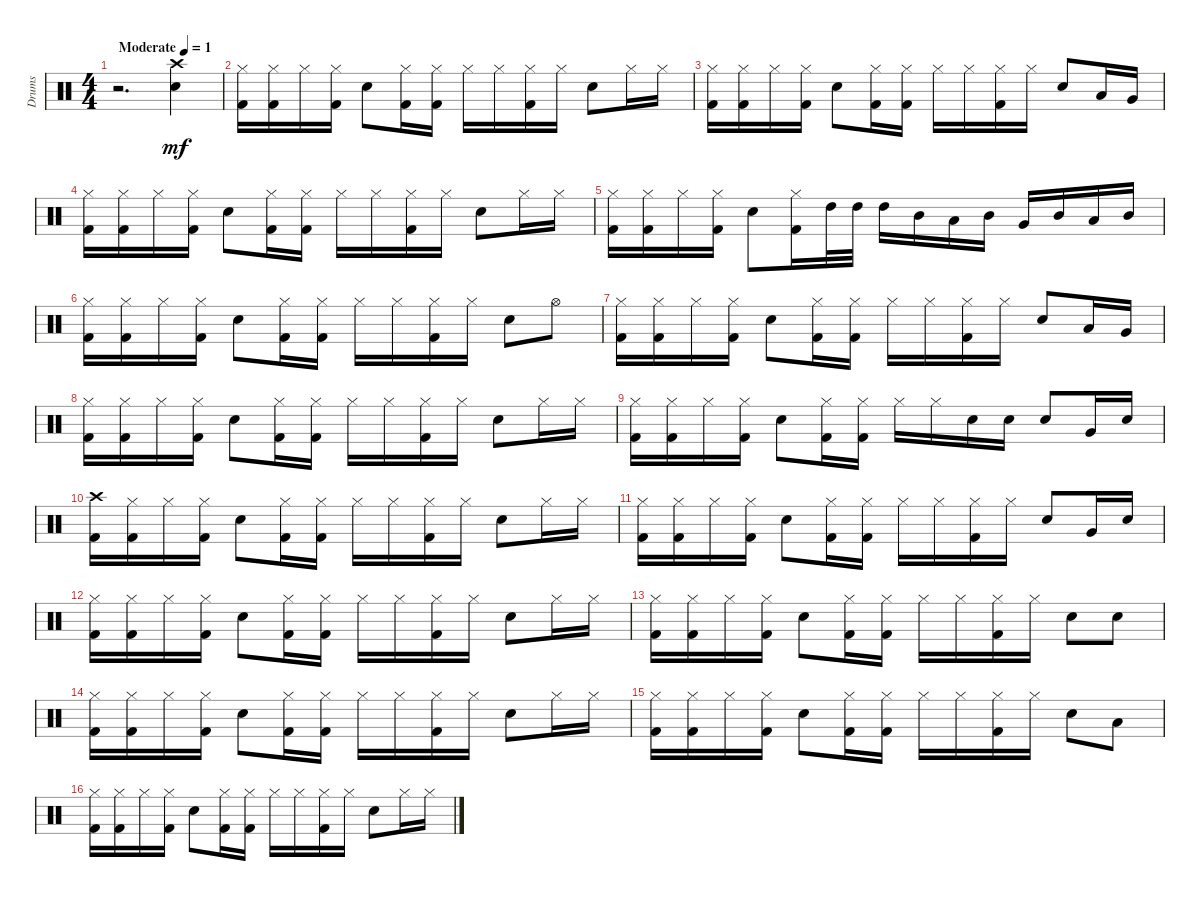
\track ("Drums" "Drums") {instrument percussion}
\staff {score}
\articulation defaults
\ts (4 4)
\tempo (1 "Moderate")
\clef neutral
\ks c
r.2{d dy mf} ("Snare (hit) 2" "Crash high (hit)").4 |
("Hi-Hat (closed)" "Kick (hit) 2").16 ("Hi-Hat (closed)" "Kick (hit) 2").16 "Hi-Hat (closed)".16 ("Hi-Hat (closed)" "Kick (hit) 2").16 "Snare (hit) 2".8 ("Hi-Hat (closed)" "Kick (hit) 2").16 ("Hi-Hat (closed)" "Kick (hit) 2").16 "Hi-Hat (closed)".16 "Hi-Hat (closed)".16 ("Hi-Hat (closed)" "Kick (hit) 2").16 "Hi-Hat (closed)".16 "Snare (hit) 2".8 "Hi-Hat (closed)".16 "Hi-Hat (closed)".16 |
("Hi-Hat (closed)" "Kick (hit) 2").16 ("Hi-Hat (closed)" "Kick (hit) 2").16 "Hi-Hat (closed)".16 ("Hi-Hat (closed)" "Kick (hit) 2").16 "Snare (hit) 2".8 ("Hi-Hat (closed)" "Kick (hit) 2").16 ("Hi-Hat (closed)" "Kick (hit) 2").16 "Hi-Hat (closed)".16 "Hi-Hat (closed)".16 ("Hi-Hat (closed)" "Kick (hit) 2").16 "Hi-Hat (closed)".16 "Snare (hit) 2".8 "Low Tom (hit)".16 "Very Low Tom (hit)".16 |
("Hi-Hat (closed)" "Kick (hit) 2").16 ("Hi-Hat (closed)" "Kick (hit) 2").16 "Hi-Hat (closed)".16 ("Hi-Hat (closed)" "Kick (hit) 2").16 "Snare (hit) 2".8 ("Hi-Hat (closed)" "Kick (hit) 2").16 ("Hi-Hat (closed)" "Kick (hit) 2").16 "Hi-Hat (closed)".16 "Hi-Hat (closed)".16 ("Hi-Hat (closed)" "Kick (hit) 2").16 "Hi-Hat (closed)".16 "Snare (hit) 2".8 "Hi-Hat (closed)".16 "Hi-Hat (closed)".16 |
("Hi-Hat (closed)" "Kick (hit) 2").16 ("Hi-Hat (closed)" "Kick (hit) 2").16 "Hi-Hat (closed)".16 ("Hi-Hat (closed)" "Kick (hit) 2").16 "Snare (hit) 2".8 ("Hi-Hat (closed)" "Kick (hit) 2").16 "High Tom (hit)".32 "High Tom (hit)".32 "High Tom (hit)".16 "Mid Tom (hit)".16 "Low Tom (hit)".16 "Mid Tom (hit)".16 "Very Low Tom (hit)".16 "Mid Tom (hit)".16 "Low Floor Tom (hit)".16 "Mid Tom (hit)".16 |
("Hi-Hat (closed)" "Kick (hit) 2").16 ("Hi-Hat (closed)" "Kick (hit) 2").16 "Hi-Hat (closed)".16 ("Hi-Hat (closed)" "Kick (hit) 2").16 "Snare (hit) 2".8 ("Hi-Hat (closed)" "Kick (hit) 2").16 ("Hi-Hat (closed)" "Kick (hit) 2").16 "Hi-Hat (closed)".16 "Hi-Hat (closed)".16 ("Hi-Hat (closed)" "Kick (hit) 2").16 "Hi-Hat (closed)".16 "Snare (hit) 2".8 "Hi-Hat (open)".8 |
("Hi-Hat (closed)" "Kick (hit) 2").16 ("Hi-Hat (closed)" "Kick (hit) 2").16 "Hi-Hat (closed)".16 ("Hi-Hat (closed)" "Kick (hit) 2").16 "Snare (hit) 2".8 ("Hi-Hat (closed)" "Kick (hit) 2").16 ("Hi-Hat (closed)" "Kick (hit) 2").16 "Hi-Hat (closed)".16 "Hi-Hat (closed)".16 ("Hi-Hat (closed)" "Kick (hit) 2").16 "Hi-Hat (closed)".16 "Snare (hit) 2".8 "Low Tom (hit)".16 "Very Low Tom (hit)".16 |
("Hi-Hat (closed)" "Kick (hit) 2").16 ("Hi-Hat (closed)" "Kick (hit) 2").16 "Hi-Hat (closed)".16 ("Hi-Hat (closed)" "Kick (hit) 2").16 "Snare (hit) 2".8 ("Hi-Hat (closed)" "Kick (hit) 2").16 ("Hi-Hat (closed)" "Kick (hit) 2").16 "Hi-Hat (closed)".16 "Hi-Hat (closed)".16 ("Hi-Hat (closed)" "Kick (hit) 2").16 "Hi-Hat (closed)".16 "Snare (hit) 2".8 "Hi-Hat (closed)".16 "Hi-Hat (closed)".16 |
("Hi-Hat (closed)" "Kick (hit) 2").16 ("Hi-Hat (closed)" "Kick (hit) 2").16 "Hi-Hat (closed)".16 ("Hi-Hat (closed)" "Kick (hit) 2").16 "Snare (hit) 2".8 ("Hi-Hat (closed)" "Kick (hit) 2").16 ("Hi-Hat (closed)" "Kick (hit) 2").16 "Hi-Hat (closed)".16 "Hi-Hat (closed)".16 "Snare (hit) 2".16 "Snare (hit) 2".16 "Snare (hit) 2".8 "Very Low Tom (hit)".16 "Snare (hit) 2".16 |
("Kick (hit) 2" "Crash high (hit)").16 ("Hi-Hat (closed)" "Kick (hit) 2").16 "Hi-Hat (closed)".16 ("Hi-Hat (closed)" "Kick (hit) 2").16 "Snare (hit) 2".8 ("Hi-Hat (closed)" "Kick (hit) 2").16 ("Hi-Hat (closed)" "Kick (hit) 2").16 "Hi-Hat (closed)".16 "Hi-Hat (closed)".16 ("Hi-Hat (closed)" "Kick (hit) 2").16 "Hi-Hat (closed)".16 "Snare (hit) 2".8 "Hi-Hat (closed)".16 "Hi-Hat (closed)".16 |
("Hi-Hat (closed)" "Kick (hit) 2").16 ("Hi-Hat (closed)" "Kick (hit) 2").16 "Hi-Hat (closed)".16 ("Hi-Hat (closed)" "Kick (hit) 2").16 "Snare (hit) 2".8 ("Hi-Hat (closed)" "Kick (hit) 2").16 ("Hi-Hat (closed)" "Kick (hit) 2").16 "Hi-Hat (closed)".16 "Hi-Hat (closed)".16 ("Hi-Hat (closed)" "Kick (hit) 2").16 "Hi-Hat (closed)".16 "Snare (hit) 2".8 "Very Low Tom (hit)".16 "Snare (hit) 2".16 |
("Hi-Hat (closed)" "Kick (hit) 2").16 ("Hi-Hat (closed)" "Kick (hit) 2").16 "Hi-Hat (closed)".16 ("Hi-Hat (closed)" "Kick (hit) 2").16 "Snare (hit) 2".8 ("Hi-Hat (closed)" "Kick (hit) 2").16 ("Hi-Hat (closed)" "Kick (hit) 2").16 "Hi-Hat (closed)".16 "Hi-Hat (closed)".16 ("Hi-Hat (closed)" "Kick (hit) 2").16 "Hi-Hat (closed)".16 "Snare (hit) 2".8 "Hi-Hat (closed)".16 "Hi-Hat (closed)".16 |
("Hi-Hat (closed)" "Kick (hit) 2").16 ("Hi-Hat (closed)" "Kick (hit) 2").16 "Hi-Hat (closed)".16 ("Hi-Hat (closed)" "Kick (hit) 2").16 "Snare (hit) 2".8 ("Hi-Hat (closed)" "Kick (hit) 2").16 ("Hi-Hat (closed)" "Kick (hit) 2").16 "Hi-Hat (closed)".16 "Hi-Hat (closed)".16 ("Hi-Hat (closed)" "Kick (hit) 2").16 "Hi-Hat (closed)".16 "Snare (hit) 2".8 "Snare (hit) 2".8 |
("Hi-Hat (closed)" "Kick (hit) 2").16 ("Hi-Hat (closed)" "Kick (hit) 2").16 "Hi-Hat (closed)".16 ("Hi-Hat (closed)" "Kick (hit) 2").16 "Snare (hit) 2".8 ("Hi-Hat (closed)" "Kick (hit) 2").16 ("Hi-Hat (closed)" "Kick (hit) 2").16 "Hi-Hat (closed)".16 "Hi-Hat (closed)".16 ("Hi-Hat (closed)" "Kick (hit) 2").16 "Hi-Hat (closed)".16 "Snare (hit) 2".8 "Hi-Hat (closed)".16 "Hi-Hat (closed)".16 |
("Hi-Hat (closed)" "Kick (hit) 2").16 ("Hi-Hat (closed)" "Kick (hit) 2").16 "Hi-Hat (closed)".16 ("Hi-Hat (closed)" "Kick (hit) 2").16 "Snare (hit) 2".8 ("Hi-Hat (closed)" "Kick (hit) 2").16 ("Hi-Hat (closed)" "Kick (hit) 2").16 "Hi-Hat (closed)".16 "Hi-Hat (closed)".16 ("Hi-Hat (closed)" "Kick (hit) 2").16 "Hi-Hat (closed)".16 "Snare (hit) 2".8 "Low Tom (hit)".8 |
("Hi-Hat (closed)" "Kick (hit) 2").16 ("Hi-Hat (closed)" "Kick (hit) 2").16 "Hi-Hat (closed)".16 ("Hi-Hat (closed)" "Kick (hit) 2").16 "Snare (hit) 2".8 ("Hi-Hat (closed)" "Kick (hit) 2").16 ("Hi-Hat (closed)" "Kick (hit) 2").16 "Hi-Hat (closed)".16 "Hi-Hat (closed)".16 ("Hi-Hat (closed)" "Kick (hit) 2").16 "Hi-Hat (closed)".16 "Snare (hit) 2".8 "Hi-Hat (closed)".16 "Hi-Hat (closed)".16
